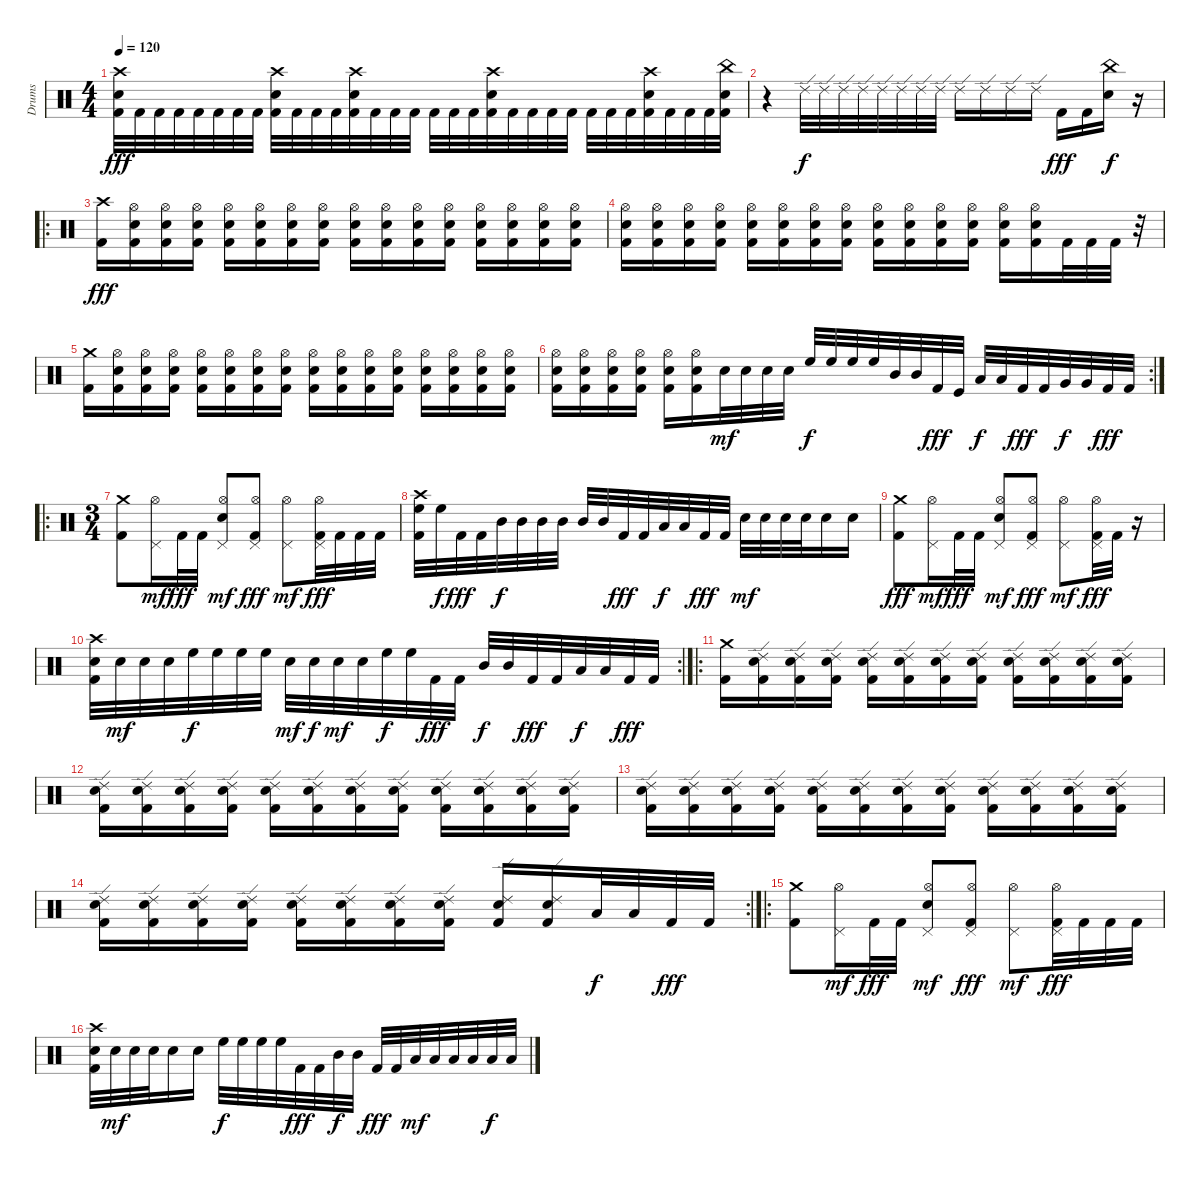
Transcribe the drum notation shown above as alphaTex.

\track ("Drums" "Drums") {instrument percussion}
\staff {score}
\articulation defaults
\ts (4 4)
\tempo 120
\clef neutral
\ks c
("Crash high (hit)" "Electric Snare (hit)" "Kick (hit) 2").32{dy fff} "Kick (hit) 2".32 "Kick (hit) 2".32 "Kick (hit) 2".32 "Kick (hit) 2".32 "Kick (hit) 2".32 "Kick (hit) 2".32 "Kick (hit) 2".32 ("Crash high (hit)" "Electric Snare (hit)" "Kick (hit) 2").32 "Kick (hit) 2".32 "Kick (hit) 2".32 "Kick (hit) 2".32 ("Crash high (hit)" "Electric Snare (hit)" "Kick (hit) 2").32 "Kick (hit) 2".32 "Kick (hit) 2".32 "Kick (hit) 2".32 "Kick (hit) 2".32 "Kick (hit) 2".32 "Kick (hit) 2".32 ("Crash high (hit)" "Electric Snare (hit)" "Kick (hit) 2").32 "Kick (hit) 2".32 "Kick (hit) 2".32 "Kick (hit) 2".32 "Kick (hit) 2".32 "Kick (hit) 2".32 "Kick (hit) 2".32 "Kick (hit) 2".32 ("Crash high (hit)" "Electric Snare (hit)" "Kick (hit) 2").32 "Kick (hit) 2".32 "Kick (hit) 2".32 "Kick (hit) 2".32 ("China (hit)" "Electric Snare (hit)" "Kick (hit) 2").32 |
r.4 "Ride (edge) 2".32{dy f} "Ride (edge) 2".32 "Ride (edge) 2".32 "Ride (edge) 2".32 "Ride (edge) 2".32 "Ride (edge) 2".32 "Ride (edge) 2".32 "Ride (edge) 2".32 "Ride (edge) 2".16 "Ride (edge) 2".16 "Ride (edge) 2".16 "Ride (edge) 2".16 "Kick (hit) 2".16{dy fff} "Kick (hit) 2".16 ("China (hit)" "Electric Snare (hit)").16{dy f} r.16 |
\ro
("Crash high (hit)" "Kick (hit) 2").16{dy fff} ("Hi-Hat (open)" "Electric Snare (hit)" "Kick (hit) 2").16 ("Hi-Hat (open)" "Electric Snare (hit)" "Kick (hit) 2").16 ("Hi-Hat (open)" "Electric Snare (hit)" "Kick (hit) 2").16 ("Hi-Hat (open)" "Electric Snare (hit)" "Kick (hit) 2").16 ("Hi-Hat (open)" "Electric Snare (hit)" "Kick (hit) 2").16 ("Hi-Hat (open)" "Electric Snare (hit)" "Kick (hit) 2").16 ("Hi-Hat (open)" "Electric Snare (hit)" "Kick (hit) 2").16 ("Hi-Hat (open)" "Electric Snare (hit)" "Kick (hit) 2").16 ("Hi-Hat (open)" "Electric Snare (hit)" "Kick (hit) 2").16 ("Hi-Hat (open)" "Electric Snare (hit)" "Kick (hit) 2").16 ("Hi-Hat (open)" "Electric Snare (hit)" "Kick (hit) 2").16 ("Hi-Hat (open)" "Electric Snare (hit)" "Kick (hit) 2").16 ("Hi-Hat (open)" "Electric Snare (hit)" "Kick (hit) 2").16 ("Hi-Hat (open)" "Electric Snare (hit)" "Kick (hit) 2").16 ("Hi-Hat (open)" "Electric Snare (hit)" "Kick (hit) 2").16 |
("Hi-Hat (open)" "Electric Snare (hit)" "Kick (hit) 2").16 ("Hi-Hat (open)" "Electric Snare (hit)" "Kick (hit) 2").16 ("Hi-Hat (open)" "Electric Snare (hit)" "Kick (hit) 2").16 ("Hi-Hat (open)" "Electric Snare (hit)" "Kick (hit) 2").16 ("Hi-Hat (open)" "Electric Snare (hit)" "Kick (hit) 2").16 ("Hi-Hat (open)" "Electric Snare (hit)" "Kick (hit) 2").16 ("Hi-Hat (open)" "Electric Snare (hit)" "Kick (hit) 2").16 ("Hi-Hat (open)" "Electric Snare (hit)" "Kick (hit) 2").16 ("Hi-Hat (open)" "Electric Snare (hit)" "Kick (hit) 2").16 ("Hi-Hat (open)" "Electric Snare (hit)" "Kick (hit) 2").16 ("Hi-Hat (open)" "Electric Snare (hit)" "Kick (hit) 2").16 ("Hi-Hat (open)" "Electric Snare (hit)" "Kick (hit) 2").16 ("Hi-Hat (open)" "Electric Snare (hit)" "Kick (hit) 2").16 ("Hi-Hat (open)" "Electric Snare (hit)" "Kick (hit) 2").16 "Kick (hit) 2".32 "Kick (hit) 2".32 "Kick (hit) 2".32 r.32 |
("Crash medium (hit)" "Kick (hit) 2").16 ("Hi-Hat (open)" "Electric Snare (hit)" "Kick (hit) 2").16 ("Hi-Hat (open)" "Electric Snare (hit)" "Kick (hit) 2").16 ("Hi-Hat (open)" "Electric Snare (hit)" "Kick (hit) 2").16 ("Hi-Hat (open)" "Electric Snare (hit)" "Kick (hit) 2").16 ("Hi-Hat (open)" "Electric Snare (hit)" "Kick (hit) 2").16 ("Hi-Hat (open)" "Electric Snare (hit)" "Kick (hit) 2").16 ("Hi-Hat (open)" "Electric Snare (hit)" "Kick (hit) 2").16 ("Hi-Hat (open)" "Electric Snare (hit)" "Kick (hit) 2").16 ("Hi-Hat (open)" "Electric Snare (hit)" "Kick (hit) 2").16 ("Hi-Hat (open)" "Electric Snare (hit)" "Kick (hit) 2").16 ("Hi-Hat (open)" "Electric Snare (hit)" "Kick (hit) 2").16 ("Hi-Hat (open)" "Electric Snare (hit)" "Kick (hit) 2").16 ("Hi-Hat (open)" "Electric Snare (hit)" "Kick (hit) 2").16 ("Hi-Hat (open)" "Electric Snare (hit)" "Kick (hit) 2").16 ("Hi-Hat (open)" "Electric Snare (hit)" "Kick (hit) 2").16 |
\rc 2
("Hi-Hat (open)" "Electric Snare (hit)" "Kick (hit) 2").16 ("Hi-Hat (open)" "Electric Snare (hit)" "Kick (hit) 2").16 ("Hi-Hat (open)" "Electric Snare (hit)" "Kick (hit) 2").16 ("Hi-Hat (open)" "Electric Snare (hit)" "Kick (hit) 2").16 ("Hi-Hat (open)" "Electric Snare (hit)" "Kick (hit) 2").16 ("Hi-Hat (open)" "Electric Snare (hit)" "Kick (hit) 2").16 "Electric Snare (hit)".32{dy mf} "Electric Snare (hit)".32 "Electric Snare (hit)".32 "Electric Snare (hit)".32 "High Floor Tom (hit)".32{dy f} "High Floor Tom (hit)".32 "High Floor Tom (hit)".32 "High Floor Tom (hit)".32 "Mid Tom (hit)".32 "Mid Tom (hit)".32 "Kick (hit) 2".32{dy fff} "Kick (hit)".32 "Low Tom (hit)".32{dy f} "Low Tom (hit)".32 "Kick (hit) 2".32{dy fff} "Kick (hit) 2".32 "Very Low Tom (hit)".32{dy f} "Very Low Tom (hit)".32 "Kick (hit) 2".32{dy fff} "Kick (hit) 2".32 |
\ro
\ts (3 4)
("Crash medium (hit)" "Kick (hit) 2").8 ("Pedal Hi-Hat (hit)" "Hi-Hat (open)").16{dy mf} "Kick (hit) 2".32{dy fff} "Kick (hit) 2".32 ("Pedal Hi-Hat (hit)" "Hi-Hat (open)" "Electric Snare (hit)").8{dy mf} ("Pedal Hi-Hat (hit)" "Hi-Hat (open)" "Kick (hit) 2").8{dy fff} ("Pedal Hi-Hat (hit)" "Hi-Hat (open)").8{dy mf} ("Pedal Hi-Hat (hit)" "Hi-Hat (open)" "Kick (hit) 2").32{dy fff} "Kick (hit) 2".32 "Kick (hit) 2".32 "Kick (hit) 2".32 |
("Crash high (hit)" "High Floor Tom (hit)" "Kick (hit) 2").32 "High Floor Tom (hit)".32{dy f} "Kick (hit) 2".32{dy fff} "Kick (hit) 2".32 "Mid Tom (hit)".32{dy f} "Mid Tom (hit)".32 "Mid Tom (hit)".32 "Mid Tom (hit)".32 "Mid Tom (hit)".32 "Mid Tom (hit)".32 "Kick (hit) 2".32{dy fff} "Kick (hit) 2".32 "Low Tom (hit)".32{dy f} "Low Tom (hit)".32 "Kick (hit) 2".32{dy fff} "Kick (hit) 2".32 "Electric Snare (hit)".32{dy mf} "Electric Snare (hit)".32 "Electric Snare (hit)".32 "Electric Snare (hit)".32 "Electric Snare (hit)".16 "Electric Snare (hit)".16 |
("Crash medium (hit)" "Kick (hit) 2").8{dy fff} ("Pedal Hi-Hat (hit)" "Hi-Hat (open)").16{dy mf} "Kick (hit) 2".32{dy fff} "Kick (hit) 2".32 ("Pedal Hi-Hat (hit)" "Hi-Hat (open)" "Electric Snare (hit)").8{dy mf} ("Pedal Hi-Hat (hit)" "Hi-Hat (open)" "Kick (hit) 2").8{dy fff} ("Pedal Hi-Hat (hit)" "Hi-Hat (open)").8{dy mf} ("Pedal Hi-Hat (hit)" "Hi-Hat (open)" "Kick (hit) 2").32{dy fff} "Kick (hit) 2".32 r.16 |
\rc 2
("Crash high (hit)" "Electric Snare (hit)" "Kick (hit) 2").32 "Electric Snare (hit)".32{dy mf} "Electric Snare (hit)".32 "Electric Snare (hit)".32 "High Floor Tom (hit)".32{dy f} "High Floor Tom (hit)".32 "High Floor Tom (hit)".32 "High Floor Tom (hit)".32 "Electric Snare (hit)".32{dy mf} "Electric Snare (hit)".32{dy f} "Electric Snare (hit)".32{dy mf} "Electric Snare (hit)".32 "High Floor Tom (hit)".32{dy f} "High Floor Tom (hit)".32 "Kick (hit) 2".32{dy fff} "Kick (hit) 2".32 "Mid Tom (hit)".32{dy f} "Mid Tom (hit)".32 "Kick (hit) 2".32{dy fff} "Kick (hit) 2".32 "Low Tom (hit)".32{dy f} "Low Tom (hit)".32 "Kick (hit) 2".32{dy fff} "Kick (hit) 2".32 |
\ro
("Crash medium (hit)" "Kick (hit) 2").16 ("Ride (edge) 2" "Electric Snare (hit)" "Kick (hit) 2").16 ("Ride (edge) 2" "Electric Snare (hit)" "Kick (hit) 2").16 ("Ride (edge) 2" "Electric Snare (hit)" "Kick (hit) 2").16 ("Ride (edge) 2" "Electric Snare (hit)" "Kick (hit) 2").16 ("Ride (edge) 2" "Electric Snare (hit)" "Kick (hit) 2").16 ("Ride (edge) 2" "Electric Snare (hit)" "Kick (hit) 2").16 ("Ride (edge) 2" "Electric Snare (hit)" "Kick (hit) 2").16 ("Ride (edge) 2" "Electric Snare (hit)" "Kick (hit) 2").16 ("Ride (edge) 2" "Electric Snare (hit)" "Kick (hit) 2").16 ("Ride (edge) 2" "Electric Snare (hit)" "Kick (hit) 2").16 ("Ride (edge) 2" "Electric Snare (hit)" "Kick (hit) 2").16 |
("Ride (edge) 2" "Electric Snare (hit)" "Kick (hit) 2").16 ("Ride (edge) 2" "Electric Snare (hit)" "Kick (hit) 2").16 ("Ride (edge) 2" "Electric Snare (hit)" "Kick (hit) 2").16 ("Ride (edge) 2" "Electric Snare (hit)" "Kick (hit) 2").16 ("Ride (edge) 2" "Electric Snare (hit)" "Kick (hit) 2").16 ("Ride (edge) 2" "Electric Snare (hit)" "Kick (hit) 2").16 ("Ride (edge) 2" "Electric Snare (hit)" "Kick (hit) 2").16 ("Ride (edge) 2" "Electric Snare (hit)" "Kick (hit) 2").16 ("Ride (edge) 2" "Electric Snare (hit)" "Kick (hit) 2").16 ("Ride (edge) 2" "Electric Snare (hit)" "Kick (hit) 2").16 ("Ride (edge) 2" "Electric Snare (hit)" "Kick (hit) 2").16 ("Ride (edge) 2" "Electric Snare (hit)" "Kick (hit) 2").16 |
("Ride (edge) 2" "Electric Snare (hit)" "Kick (hit) 2").16 ("Ride (edge) 2" "Electric Snare (hit)" "Kick (hit) 2").16 ("Ride (edge) 2" "Electric Snare (hit)" "Kick (hit) 2").16 ("Ride (edge) 2" "Electric Snare (hit)" "Kick (hit) 2").16 ("Ride (edge) 2" "Electric Snare (hit)" "Kick (hit) 2").16 ("Ride (edge) 2" "Electric Snare (hit)" "Kick (hit) 2").16 ("Ride (edge) 2" "Electric Snare (hit)" "Kick (hit) 2").16 ("Ride (edge) 2" "Electric Snare (hit)" "Kick (hit) 2").16 ("Ride (edge) 2" "Electric Snare (hit)" "Kick (hit) 2").16 ("Ride (edge) 2" "Electric Snare (hit)" "Kick (hit) 2").16 ("Ride (edge) 2" "Electric Snare (hit)" "Kick (hit) 2").16 ("Ride (edge) 2" "Electric Snare (hit)" "Kick (hit) 2").16 |
\rc 2
("Ride (edge) 2" "Electric Snare (hit)" "Kick (hit) 2").16 ("Ride (edge) 2" "Electric Snare (hit)" "Kick (hit) 2").16 ("Ride (edge) 2" "Electric Snare (hit)" "Kick (hit) 2").16 ("Ride (edge) 2" "Electric Snare (hit)" "Kick (hit) 2").16 ("Ride (edge) 2" "Electric Snare (hit)" "Kick (hit) 2").16 ("Ride (edge) 2" "Electric Snare (hit)" "Kick (hit) 2").16 ("Ride (edge) 2" "Electric Snare (hit)" "Kick (hit) 2").16 ("Ride (edge) 2" "Electric Snare (hit)" "Kick (hit) 2").16 ("Ride (edge) 2" "Electric Snare (hit)" "Kick (hit) 2").16 ("Ride (edge) 2" "Electric Snare (hit)" "Kick (hit) 2").16 "Low Tom (hit)".32{dy f} "Low Tom (hit)".32 "Kick (hit) 2".32{dy fff} "Kick (hit) 2".32 |
\ro
("Crash medium (hit)" "Kick (hit) 2").8 ("Pedal Hi-Hat (hit)" "Hi-Hat (open)").16{dy mf} "Kick (hit) 2".32{dy fff} "Kick (hit) 2".32 ("Pedal Hi-Hat (hit)" "Hi-Hat (open)" "Electric Snare (hit)").8{dy mf} ("Pedal Hi-Hat (hit)" "Hi-Hat (open)" "Kick (hit) 2").8{dy fff} ("Pedal Hi-Hat (hit)" "Hi-Hat (open)").8{dy mf} ("Pedal Hi-Hat (hit)" "Hi-Hat (open)" "Kick (hit) 2").32{dy fff} "Kick (hit) 2".32 "Kick (hit) 2".32 "Kick (hit) 2".32 |
("Crash high (hit)" "Electric Snare (hit)" "Kick (hit) 2").32 "Electric Snare (hit)".32{dy mf} "Electric Snare (hit)".32 "Electric Snare (hit)".32 "Electric Snare (hit)".16 "Electric Snare (hit)".16 "High Floor Tom (hit)".32{dy f} "High Floor Tom (hit)".32 "High Floor Tom (hit)".32 "High Floor Tom (hit)".32 "Kick (hit) 2".32{dy fff} "Kick (hit) 2".32 "Mid Tom (hit)".32{dy f} "Mid Tom (hit)".32 "Kick (hit) 2".32{dy fff} "Kick (hit) 2".32 "Low Tom (hit)".32{dy mf} "Low Tom (hit)".32 "Low Tom (hit)".32 "Low Tom (hit)".32 "Low Tom (hit)".32{dy f} "Low Tom (hit)".32
